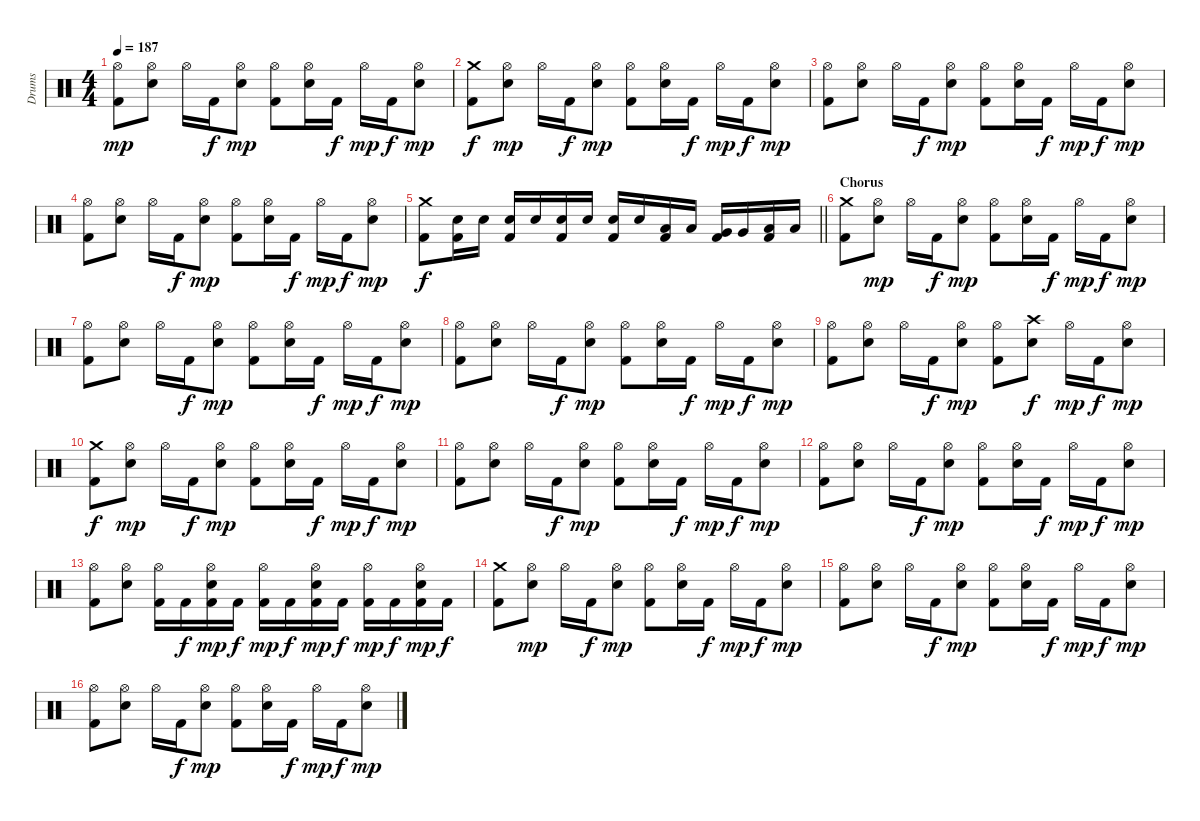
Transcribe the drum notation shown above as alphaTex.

\track ("Drums" "Drums") {instrument percussion}
\staff {score}
\articulation defaults
\ts (4 4)
\tempo 187
\clef neutral
\ks c
("Hi-Hat (open)" "Kick (hit) 2").8{dy mp} ("Hi-Hat (open)" "Snare (hit) 2").8 "Hi-Hat (open)".16 "Kick (hit) 2".16{dy f} ("Hi-Hat (open)" "Snare (hit) 2").8{dy mp} ("Hi-Hat (open)" "Kick (hit) 2").8 ("Hi-Hat (open)" "Snare (hit) 2").16 "Kick (hit) 2".16{dy f} "Hi-Hat (open)".16{dy mp} "Kick (hit) 2".16{dy f} ("Hi-Hat (open)" "Snare (hit) 2").8{dy mp} |
("Crash medium (hit)" "Kick (hit) 2").8{dy f} ("Hi-Hat (open)" "Snare (hit) 2").8{dy mp} "Hi-Hat (open)".16 "Kick (hit) 2".16{dy f} ("Hi-Hat (open)" "Snare (hit) 2").8{dy mp} ("Hi-Hat (open)" "Kick (hit) 2").8 ("Hi-Hat (open)" "Snare (hit) 2").16 "Kick (hit) 2".16{dy f} "Hi-Hat (open)".16{dy mp} "Kick (hit) 2".16{dy f} ("Hi-Hat (open)" "Snare (hit) 2").8{dy mp} |
("Hi-Hat (open)" "Kick (hit) 2").8 ("Hi-Hat (open)" "Snare (hit) 2").8 "Hi-Hat (open)".16 "Kick (hit) 2".16{dy f} ("Hi-Hat (open)" "Snare (hit) 2").8{dy mp} ("Hi-Hat (open)" "Kick (hit) 2").8 ("Hi-Hat (open)" "Snare (hit) 2").16 "Kick (hit) 2".16{dy f} "Hi-Hat (open)".16{dy mp} "Kick (hit) 2".16{dy f} ("Hi-Hat (open)" "Snare (hit) 2").8{dy mp} |
("Hi-Hat (open)" "Kick (hit) 2").8 ("Hi-Hat (open)" "Snare (hit) 2").8 "Hi-Hat (open)".16 "Kick (hit) 2".16{dy f} ("Hi-Hat (open)" "Snare (hit) 2").8{dy mp} ("Hi-Hat (open)" "Kick (hit) 2").8 ("Hi-Hat (open)" "Snare (hit) 2").16 "Kick (hit) 2".16{dy f} "Hi-Hat (open)".16{dy mp} "Kick (hit) 2".16{dy f} ("Hi-Hat (open)" "Snare (hit) 2").8{dy mp} |
\barLineRight lightlight
("Crash medium (hit)" "Kick (hit) 2").8{dy f} ("Snare (hit) 2" "Kick (hit) 2").16 "Snare (hit) 2".16 ("Snare (hit) 2" "Kick (hit) 2").16 "Snare (hit) 2".16 ("Snare (hit) 2" "Kick (hit) 2").16 "Snare (hit) 2".16 ("Snare (hit) 2" "Kick (hit) 2").16 "Snare (hit) 2".16 ("Low Tom (hit)" "Kick (hit) 2").16 "Low Tom (hit)".16 ("Very Low Tom (hit)" "Kick (hit) 2").16 "Very Low Tom (hit)".16 ("Low Floor Tom (hit)" "Kick (hit) 2").16 "Low Floor Tom (hit)".16 |
\section ("" "Chorus")
("Crash medium (hit)" "Kick (hit) 2").8 ("Hi-Hat (open)" "Snare (hit) 2").8{dy mp} "Hi-Hat (open)".16 "Kick (hit) 2".16{dy f} ("Hi-Hat (open)" "Snare (hit) 2").8{dy mp} ("Hi-Hat (open)" "Kick (hit) 2").8 ("Hi-Hat (open)" "Snare (hit) 2").16 "Kick (hit) 2".16{dy f} "Hi-Hat (open)".16{dy mp} "Kick (hit) 2".16{dy f} ("Hi-Hat (open)" "Snare (hit) 2").8{dy mp} |
("Hi-Hat (open)" "Kick (hit) 2").8 ("Hi-Hat (open)" "Snare (hit) 2").8 "Hi-Hat (open)".16 "Kick (hit) 2".16{dy f} ("Hi-Hat (open)" "Snare (hit) 2").8{dy mp} ("Hi-Hat (open)" "Kick (hit) 2").8 ("Hi-Hat (open)" "Snare (hit) 2").16 "Kick (hit) 2".16{dy f} "Hi-Hat (open)".16{dy mp} "Kick (hit) 2".16{dy f} ("Hi-Hat (open)" "Snare (hit) 2").8{dy mp} |
("Hi-Hat (open)" "Kick (hit) 2").8 ("Hi-Hat (open)" "Snare (hit) 2").8 "Hi-Hat (open)".16 "Kick (hit) 2".16{dy f} ("Hi-Hat (open)" "Snare (hit) 2").8{dy mp} ("Hi-Hat (open)" "Kick (hit) 2").8 ("Hi-Hat (open)" "Snare (hit) 2").16 "Kick (hit) 2".16{dy f} "Hi-Hat (open)".16{dy mp} "Kick (hit) 2".16{dy f} ("Hi-Hat (open)" "Snare (hit) 2").8{dy mp} |
("Hi-Hat (open)" "Kick (hit) 2").8 ("Hi-Hat (open)" "Snare (hit) 2").8 "Hi-Hat (open)".16 "Kick (hit) 2".16{dy f} ("Hi-Hat (open)" "Snare (hit) 2").8{dy mp} ("Hi-Hat (open)" "Kick (hit) 2").8 ("Crash high (hit)" "Snare (hit) 2").8{dy f} "Hi-Hat (open)".16{dy mp} "Kick (hit) 2".16{dy f} ("Hi-Hat (open)" "Snare (hit) 2").8{dy mp} |
("Crash medium (hit)" "Kick (hit) 2").8{dy f} ("Hi-Hat (open)" "Snare (hit) 2").8{dy mp} "Hi-Hat (open)".16 "Kick (hit) 2".16{dy f} ("Hi-Hat (open)" "Snare (hit) 2").8{dy mp} ("Hi-Hat (open)" "Kick (hit) 2").8 ("Hi-Hat (open)" "Snare (hit) 2").16 "Kick (hit) 2".16{dy f} "Hi-Hat (open)".16{dy mp} "Kick (hit) 2".16{dy f} ("Hi-Hat (open)" "Snare (hit) 2").8{dy mp} |
("Hi-Hat (open)" "Kick (hit) 2").8 ("Hi-Hat (open)" "Snare (hit) 2").8 "Hi-Hat (open)".16 "Kick (hit) 2".16{dy f} ("Hi-Hat (open)" "Snare (hit) 2").8{dy mp} ("Hi-Hat (open)" "Kick (hit) 2").8 ("Hi-Hat (open)" "Snare (hit) 2").16 "Kick (hit) 2".16{dy f} "Hi-Hat (open)".16{dy mp} "Kick (hit) 2".16{dy f} ("Hi-Hat (open)" "Snare (hit) 2").8{dy mp} |
("Hi-Hat (open)" "Kick (hit) 2").8 ("Hi-Hat (open)" "Snare (hit) 2").8 "Hi-Hat (open)".16 "Kick (hit) 2".16{dy f} ("Hi-Hat (open)" "Snare (hit) 2").8{dy mp} ("Hi-Hat (open)" "Kick (hit) 2").8 ("Hi-Hat (open)" "Snare (hit) 2").16 "Kick (hit) 2".16{dy f} "Hi-Hat (open)".16{dy mp} "Kick (hit) 2".16{dy f} ("Hi-Hat (open)" "Snare (hit) 2").8{dy mp} |
("Hi-Hat (open)" "Kick (hit) 2").8 ("Hi-Hat (open)" "Snare (hit) 2").8 ("Hi-Hat (open)" "Kick (hit) 2").16 "Kick (hit) 2".16{dy f} ("Hi-Hat (open)" "Snare (hit) 2" "Kick (hit) 2").16{dy mp} "Kick (hit) 2".16{dy f} ("Hi-Hat (open)" "Kick (hit) 2").16{dy mp} "Kick (hit) 2".16{dy f} ("Hi-Hat (open)" "Snare (hit) 2" "Kick (hit) 2").16{dy mp} "Kick (hit) 2".16{dy f} ("Hi-Hat (open)" "Kick (hit) 2").16{dy mp} "Kick (hit) 2".16{dy f} ("Hi-Hat (open)" "Snare (hit) 2" "Kick (hit) 2").16{dy mp} "Kick (hit) 2".16{dy f} |
("Crash medium (hit)" "Kick (hit) 2").8 ("Hi-Hat (open)" "Snare (hit) 2").8{dy mp} "Hi-Hat (open)".16 "Kick (hit) 2".16{dy f} ("Hi-Hat (open)" "Snare (hit) 2").8{dy mp} ("Hi-Hat (open)" "Kick (hit) 2").8 ("Hi-Hat (open)" "Snare (hit) 2").16 "Kick (hit) 2".16{dy f} "Hi-Hat (open)".16{dy mp} "Kick (hit) 2".16{dy f} ("Hi-Hat (open)" "Snare (hit) 2").8{dy mp} |
("Hi-Hat (open)" "Kick (hit) 2").8 ("Hi-Hat (open)" "Snare (hit) 2").8 "Hi-Hat (open)".16 "Kick (hit) 2".16{dy f} ("Hi-Hat (open)" "Snare (hit) 2").8{dy mp} ("Hi-Hat (open)" "Kick (hit) 2").8 ("Hi-Hat (open)" "Snare (hit) 2").16 "Kick (hit) 2".16{dy f} "Hi-Hat (open)".16{dy mp} "Kick (hit) 2".16{dy f} ("Hi-Hat (open)" "Snare (hit) 2").8{dy mp} |
("Hi-Hat (open)" "Kick (hit) 2").8 ("Hi-Hat (open)" "Snare (hit) 2").8 "Hi-Hat (open)".16 "Kick (hit) 2".16{dy f} ("Hi-Hat (open)" "Snare (hit) 2").8{dy mp} ("Hi-Hat (open)" "Kick (hit) 2").8 ("Hi-Hat (open)" "Snare (hit) 2").16 "Kick (hit) 2".16{dy f} "Hi-Hat (open)".16{dy mp} "Kick (hit) 2".16{dy f} ("Hi-Hat (open)" "Snare (hit) 2").8{dy mp}
